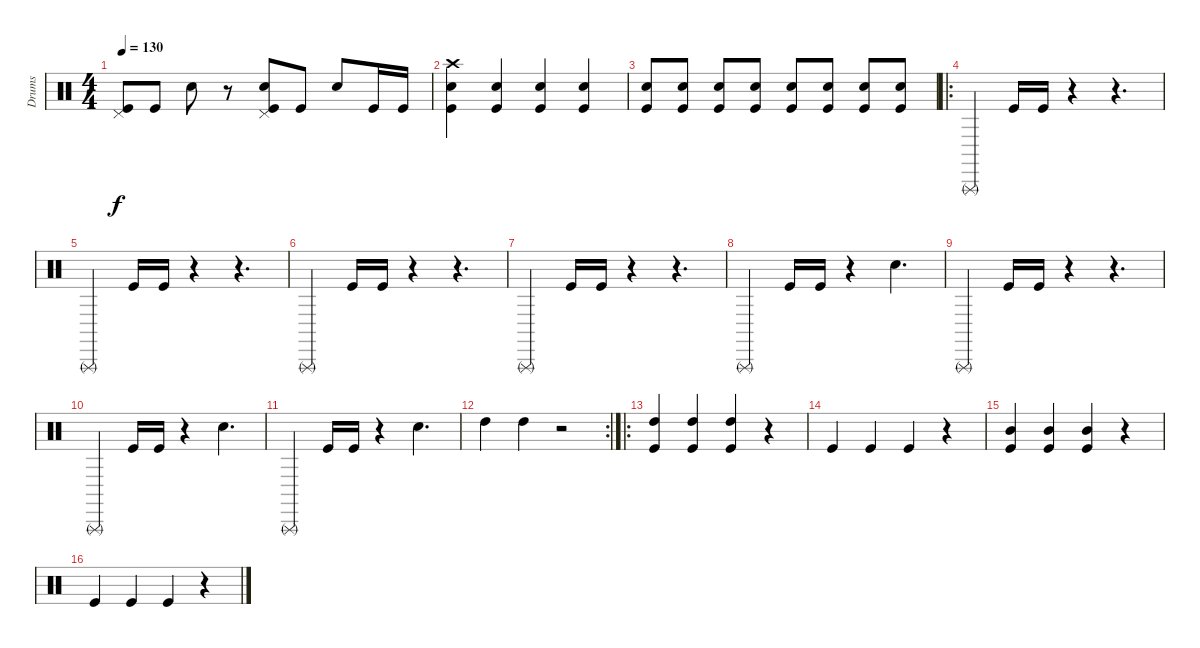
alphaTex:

\track ("Drums" "Drums") {instrument percussion}
\staff {score}
\articulation defaults
\ts (4 4)
\tempo 130
\clef neutral
\ks c
("Pedal Hi-Hat (hit)" "Kick (hit)").8{dy f} "Kick (hit)".8 "Snare (hit) 2".8 r.8 ("Pedal Hi-Hat (hit)" "Snare (hit) 2" "Kick (hit)").8 "Kick (hit)".8 "Snare (hit) 2".8 "Kick (hit)".16 "Kick (hit)".16 |
("Crash high (hit)" "Snare (hit) 2" "Kick (hit)").4 ("Snare (hit) 2" "Kick (hit)").4 ("Snare (hit) 2" "Kick (hit)").4 ("Snare (hit) 2" "Kick (hit)").4 |
("Snare (hit) 2" "Kick (hit)").8 ("Snare (hit) 2" "Kick (hit)").8 ("Snare (hit) 2" "Kick (hit)").8 ("Snare (hit) 2" "Kick (hit)").8 ("Snare (hit) 2" "Kick (hit)").8 ("Snare (hit) 2" "Kick (hit)").8 ("Snare (hit) 2" "Kick (hit)").8 ("Snare (hit) 2" "Kick (hit)").8 |
\ro "Triangle (rnute)".4 "Kick (hit)".16 "Kick (hit)".16
r.4 r.4{d} |
"Triangle (rnute)".4 "Kick (hit)".16 "Kick (hit)".16 r.4 r.4{d} |
"Triangle (rnute)".4 "Kick (hit)".16 "Kick (hit)".16 r.4 r.4{d} |
"Triangle (rnute)".4 "Kick (hit)".16 "Kick (hit)".16 r.4 r.4{d} |
"Triangle (rnute)".4 "Kick (hit)".16 "Kick (hit)".16 r.4 "Snare (hit) 2".4{d} |
"Triangle (rnute)".4 "Kick (hit)".16 "Kick (hit)".16 r.4 r.4{d} |
"Triangle (rnute)".4 "Kick (hit)".16 "Kick (hit)".16 r.4 "Snare (hit) 2".4{d} |
"Triangle (rnute)".4 "Kick (hit)".16 "Kick (hit)".16 r.4 "Snare (hit) 2".4{d} |
\rc 2 "High Tom (hit)".4 "High Tom (hit)".4
r.2 |
\ro
("High Tom (hit)" "Kick (hit)").4 ("High Tom (hit)" "Kick (hit)").4 ("High Tom (hit)" "Kick (hit)").4 r.4 |
"Kick (hit)".4 "Kick (hit)".4 "Kick (hit)".4 r.4 |
("Mid Tom (hit)" "Kick (hit)").4 ("Mid Tom (hit)" "Kick (hit)").4 ("Mid Tom (hit)" "Kick (hit)").4 r.4 |
"Kick (hit)".4 "Kick (hit)".4 "Kick (hit)".4 r.4
